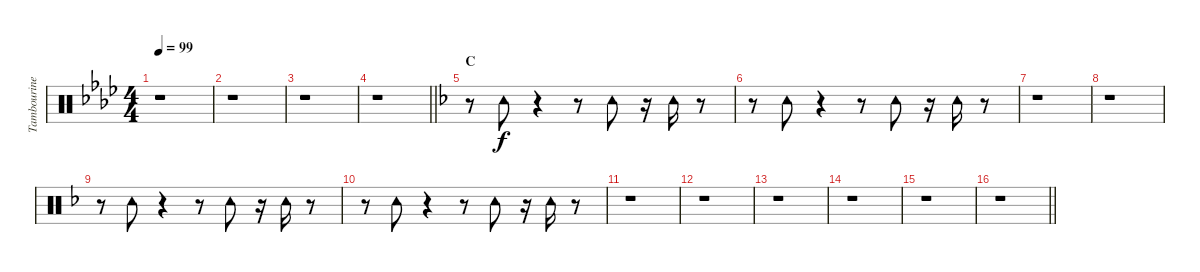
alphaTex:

\track ("Tambourine" "Tambourine") {instrument percussion}
\staff {score}
\articulation defaults
\ts (4 4)
\tempo 99
\clef neutral
\ks ab
r.1{dy f} |
r.1 |
r.1 |
\barLineRight lightlight
r.1 |
\section ("" "C")
\ks f
r.8 "Tambourine (hit)".8 r.4 r.8 "Tambourine (hit)".8 r.16 "Tambourine (hit)".16 r.8 |
r.8 "Tambourine (hit)".8 r.4 r.8 "Tambourine (hit)".8 r.16 "Tambourine (hit)".16 r.8 |
r.1 |
r.1 |
r.8 "Tambourine (hit)".8 r.4 r.8 "Tambourine (hit)".8 r.16 "Tambourine (hit)".16 r.8 |
r.8 "Tambourine (hit)".8 r.4 r.8 "Tambourine (hit)".8 r.16 "Tambourine (hit)".16 r.8 |
r.1 |
r.1 |
r.1 |
r.1 |
r.1 |
\barLineRight lightlight
r.1
